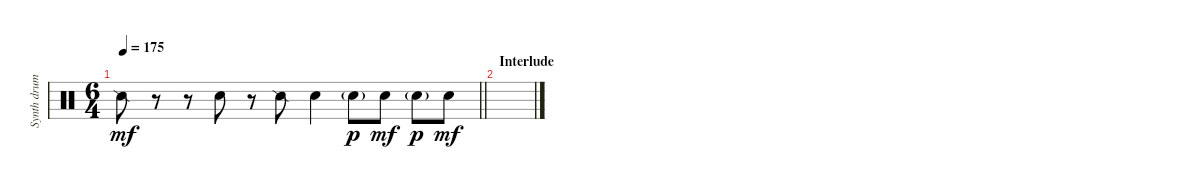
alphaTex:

\track ("Synth drums" "Synth drum") {instrument percussion}
\staff {score}
\articulation defaults
\ts (6 4)
\tempo 175
\clef neutral
\barLineRight lightlight
\ks c "Snare (side stick) 2".8{dy mf}
r.8 r.8 "Hand Clap (hit)".8 r.8 "Snare (side stick) 2".8 "Hand Clap (hit)".4 "Hand Clap (hit)"{g}.8{dy p} "Hand Clap (hit)".8{dy mf} "Hand Clap (hit)"{g}.8{dy p} "Hand Clap (hit)".8{dy mf} |
\section ("" "Interlude")
